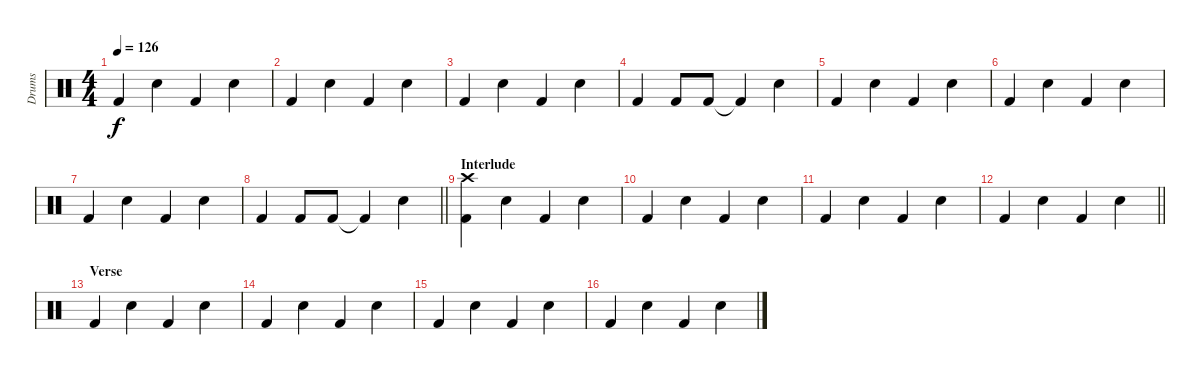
\track ("Drums" "Drums") {instrument percussion}
\staff {score}
\articulation defaults
\ts (4 4)
\tempo 126
\clef neutral
\ks c "Kick (hit) 2".4{dy f} "Electric Snare (hit)".4 "Kick (hit) 2".4 "Electric Snare (hit)".4
|
"Kick (hit) 2".4 "Electric Snare (hit)".4 "Kick (hit) 2".4 "Electric Snare (hit)".4 |
"Kick (hit) 2".4 "Electric Snare (hit)".4 "Kick (hit) 2".4 "Electric Snare (hit)".4 |
"Kick (hit) 2".4 "Kick (hit) 2".8 "Kick (hit) 2".8 "Kick (hit) 2"{t}.4 "Electric Snare (hit)".4 |
"Kick (hit) 2".4 "Electric Snare (hit)".4 "Kick (hit) 2".4 "Electric Snare (hit)".4 |
"Kick (hit) 2".4 "Electric Snare (hit)".4 "Kick (hit) 2".4 "Electric Snare (hit)".4 |
"Kick (hit) 2".4 "Electric Snare (hit)".4 "Kick (hit) 2".4 "Electric Snare (hit)".4 |
\barLineRight lightlight "Kick (hit) 2".4 "Kick (hit) 2".8 "Kick (hit) 2".8 "Kick (hit) 2"{t}.4 "Electric Snare (hit)".4
|
\section ("" "Interlude")
("Crash high (hit)" "Kick (hit) 2").4 "Electric Snare (hit)".4 "Kick (hit) 2".4 "Electric Snare (hit)".4 |
"Kick (hit) 2".4 "Electric Snare (hit)".4 "Kick (hit) 2".4 "Electric Snare (hit)".4 |
"Kick (hit) 2".4 "Electric Snare (hit)".4 "Kick (hit) 2".4 "Electric Snare (hit)".4 |
\barLineRight lightlight "Kick (hit) 2".4 "Electric Snare (hit)".4 "Kick (hit) 2".4 "Electric Snare (hit)".4
|
\section ("" "Verse")
"Kick (hit) 2".4 "Electric Snare (hit)".4 "Kick (hit) 2".4 "Electric Snare (hit)".4 |
"Kick (hit) 2".4 "Electric Snare (hit)".4 "Kick (hit) 2".4 "Electric Snare (hit)".4 |
"Kick (hit) 2".4 "Electric Snare (hit)".4 "Kick (hit) 2".4 "Electric Snare (hit)".4 |
"Kick (hit) 2".4 "Electric Snare (hit)".4 "Kick (hit) 2".4 "Electric Snare (hit)".4
